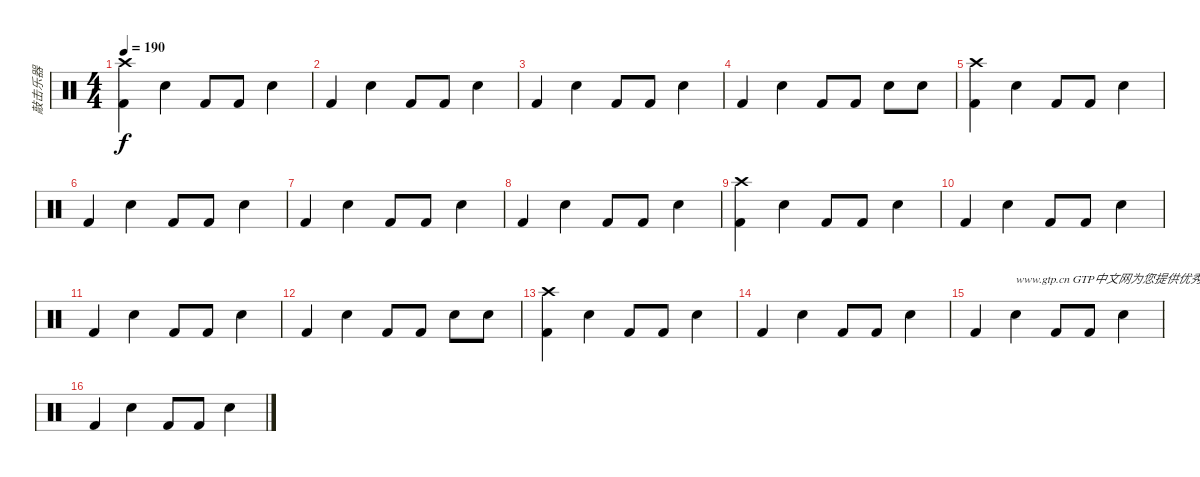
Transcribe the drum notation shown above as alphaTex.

\track ("敲击乐器" "敲击乐器") {instrument percussion}
\staff {score}
\articulation defaults
\ts (4 4)
\tempo 190
\clef neutral
\ks c
("Kick (hit) 2" "Crash high (hit)").4{dy f} "Snare (hit) 2".4 "Kick (hit) 2".8 "Kick (hit) 2".8 "Snare (hit) 2".4 |
"Kick (hit) 2".4 "Snare (hit) 2".4 "Kick (hit) 2".8 "Kick (hit) 2".8 "Snare (hit) 2".4 |
"Kick (hit) 2".4 "Snare (hit) 2".4 "Kick (hit) 2".8 "Kick (hit) 2".8 "Snare (hit) 2".4 |
"Kick (hit) 2".4 "Snare (hit) 2".4 "Kick (hit) 2".8 "Kick (hit) 2".8 "Snare (hit) 2".8 "Snare (hit) 2".8 |
("Kick (hit) 2" "Crash high (hit)").4 "Snare (hit) 2".4 "Kick (hit) 2".8 "Kick (hit) 2".8 "Snare (hit) 2".4 |
"Kick (hit) 2".4 "Snare (hit) 2".4 "Kick (hit) 2".8 "Kick (hit) 2".8 "Snare (hit) 2".4 |
"Kick (hit) 2".4 "Snare (hit) 2".4 "Kick (hit) 2".8 "Kick (hit) 2".8 "Snare (hit) 2".4 |
"Kick (hit) 2".4 "Snare (hit) 2".4 "Kick (hit) 2".8 "Kick (hit) 2".8 "Snare (hit) 2".4 |
("Kick (hit) 2" "Crash high (hit)").4 "Snare (hit) 2".4 "Kick (hit) 2".8 "Kick (hit) 2".8 "Snare (hit) 2".4 |
"Kick (hit) 2".4 "Snare (hit) 2".4 "Kick (hit) 2".8 "Kick (hit) 2".8 "Snare (hit) 2".4 |
"Kick (hit) 2".4 "Snare (hit) 2".4 "Kick (hit) 2".8 "Kick (hit) 2".8 "Snare (hit) 2".4 |
"Kick (hit) 2".4 "Snare (hit) 2".4 "Kick (hit) 2".8 "Kick (hit) 2".8 "Snare (hit) 2".8 "Snare (hit) 2".8 |
("Kick (hit) 2" "Crash high (hit)").4 "Snare (hit) 2".4 "Kick (hit) 2".8 "Kick (hit) 2".8 "Snare (hit) 2".4 |
"Kick (hit) 2".4 "Snare (hit) 2".4 "Kick (hit) 2".8 "Kick (hit) 2".8 "Snare (hit) 2".4 |
"Kick (hit) 2".4 "Snare (hit) 2".4{txt "www.gtp.cn GTP中文网为您提供优秀的谱子"} "Kick (hit) 2".8 "Kick (hit) 2".8 "Snare (hit) 2".4 |
"Kick (hit) 2".4 "Snare (hit) 2".4 "Kick (hit) 2".8 "Kick (hit) 2".8 "Snare (hit) 2".4
